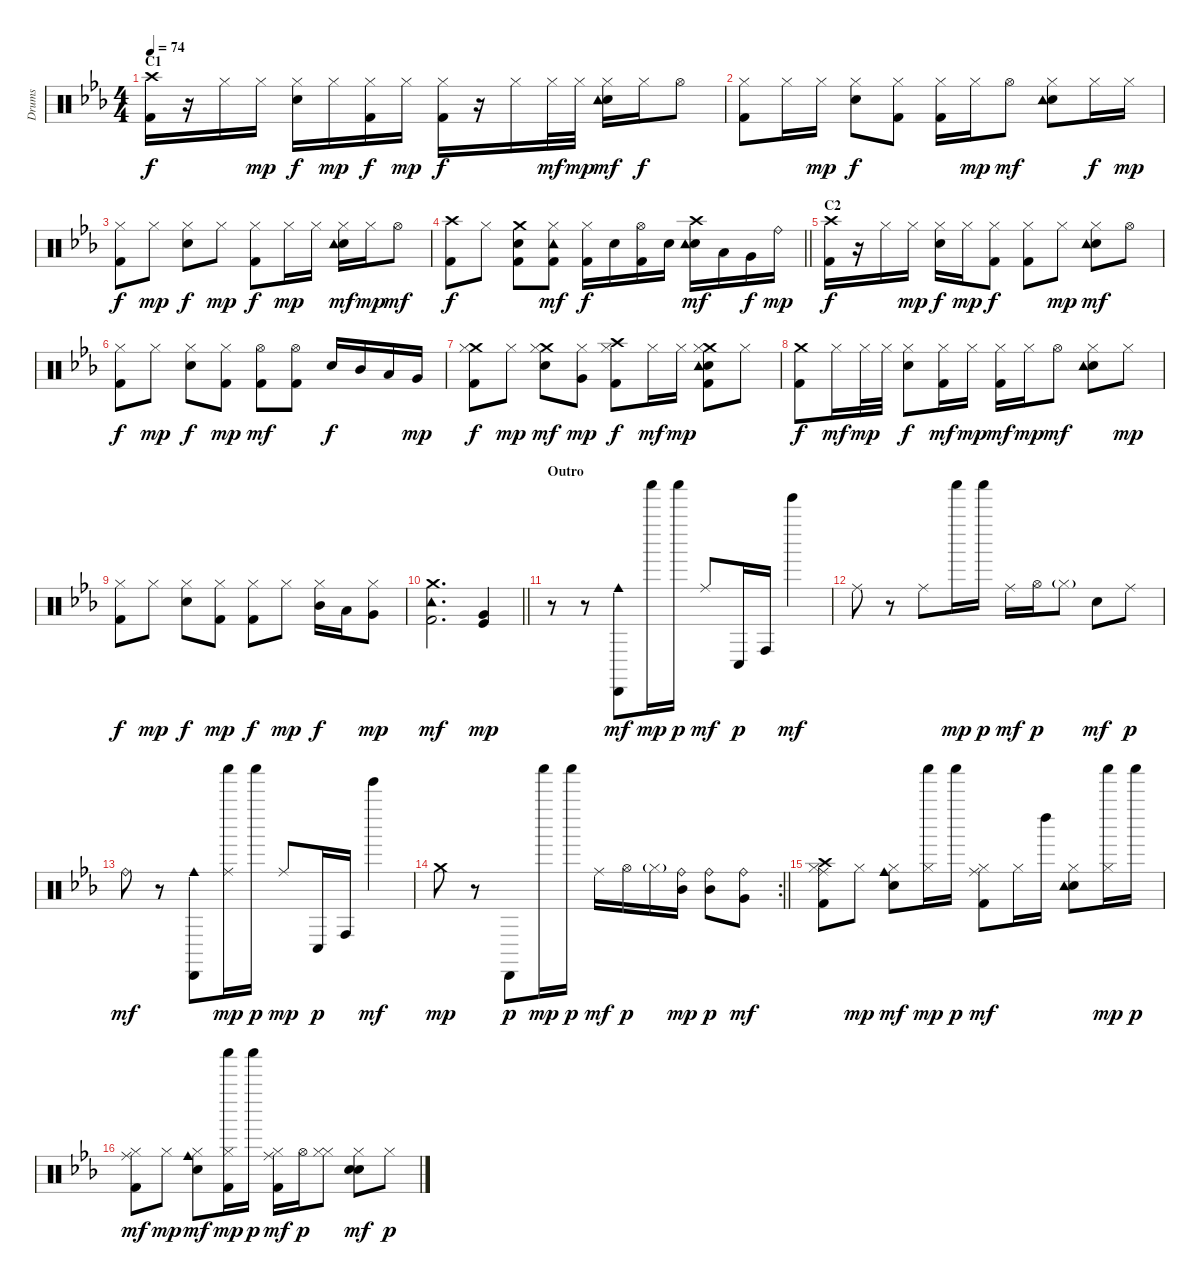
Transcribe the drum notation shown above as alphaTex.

\track ("Drums" "Drums") {instrument percussion}
\staff {score}
\articulation defaults
\ts (4 4)
\section ("" "C1")
\tempo 74
\clef neutral
\ks eb
("Crash high (hit)" "Kick (hit) 2").16{dy f} r.16 "Hi-Hat (closed)".16 "Hi-Hat (closed)".16{dy mp} ("Hi-Hat (closed)" "Electric Snare (hit)").16{dy f} "Hi-Hat (closed)".16{dy mp} ("Hi-Hat (closed)" "Kick (hit) 2").16{dy f} "Hi-Hat (closed)".16{dy mp} ("Hi-Hat (closed)" "Kick (hit) 2").16{dy f} r.16 "Hi-Hat (closed)".16 "Hi-Hat (closed)".32{dy mf} "Hi-Hat (closed)".32{dy mp} ("Hi-Hat (closed)" "Electric Snare (hit)" "Tambourine (hit)").16{dy mf} "Hi-Hat (closed)".16{dy f} "Hi-Hat (open)".8 |
("Hi-Hat (closed)" "Kick (hit) 2").8 "Hi-Hat (closed)".16 "Hi-Hat (closed)".16{dy mp} ("Hi-Hat (closed)" "Electric Snare (hit)").8{dy f} ("Hi-Hat (closed)" "Kick (hit) 2").8 ("Hi-Hat (closed)" "Kick (hit) 2").16 "Hi-Hat (closed)".16{dy mp} "Hi-Hat (open)".8{dy mf} ("Hi-Hat (closed)" "Electric Snare (hit)" "Tambourine (hit)").8 "Hi-Hat (closed)".16{dy f} "Hi-Hat (closed)".16{dy mp} |
("Hi-Hat (closed)" "Kick (hit) 2").8{dy f} "Hi-Hat (closed)".8{dy mp} ("Hi-Hat (closed)" "Electric Snare (hit)").8{dy f} "Hi-Hat (closed)".8{dy mp} ("Hi-Hat (closed)" "Kick (hit) 2").8{dy f} "Hi-Hat (closed)".16{dy mp} "Hi-Hat (closed)".16 ("Hi-Hat (closed)" "Electric Snare (hit)" "Tambourine (hit)").16{dy mf} "Hi-Hat (closed)".16{dy mp} "Hi-Hat (open)".8{dy mf} |
\barLineRight lightlight
("Crash high (hit)" "Kick (hit) 2").8{dy f} "Hi-Hat (closed)".8 ("Crash medium (hit)" "Electric Snare (hit)" "Kick (hit) 2").8 ("Hi-Hat (closed)" "Kick (hit) 2" "Tambourine (hit)").8{dy mf} ("Hi-Hat (closed)" "Kick (hit) 2").16{dy f} "Electric Snare (hit)".16 ("Hi-Hat (open)" "Kick (hit) 2").16 "Electric Snare (hit)".16 ("Crash high (hit)" "Electric Snare (hit)" "Tambourine (hit)").16{dy mf} "Low Tom (hit)".16 "Very Low Tom (hit)".16{dy f} "Ride (bell)".16{dy mp} |
\section ("" "C2")
("Crash high (hit)" "Kick (hit) 2").16{dy f} r.16 "Hi-Hat (closed)".16 "Hi-Hat (closed)".16{dy mp} ("Hi-Hat (closed)" "Electric Snare (hit)").16{dy f} "Hi-Hat (closed)".16{dy mp} ("Hi-Hat (closed)" "Kick (hit) 2").8{dy f} ("Hi-Hat (closed)" "Kick (hit) 2").8 "Hi-Hat (closed)".8{dy mp} ("Hi-Hat (closed)" "Electric Snare (hit)" "Tambourine (hit)").8{dy mf} "Hi-Hat (open)".8 |
("Hi-Hat (closed)" "Kick (hit) 2").8{dy f} "Hi-Hat (closed)".8{dy mp} ("Hi-Hat (closed)" "Electric Snare (hit)").8{dy f} ("Hi-Hat (closed)" "Kick (hit) 2").8{dy mp} ("Hi-Hat (open)" "Kick (hit) 2").8{dy mf} ("Hi-Hat (open)" "Kick (hit) 2").8 "Electric Snare (hit)".16{dy f} "Mid Tom (hit)".16 "Low Tom (hit)".16 "Very Low Tom (hit)".16{dy mp} |
("Crash medium (hit)" "Hi-Hat (closed)" "Kick (hit) 2").8{dy f} "Hi-Hat (closed)".8{dy mp} ("Crash medium (hit)" "Hi-Hat (closed)" "Electric Snare (hit)").8{dy mf} ("Hi-Hat (closed)" "Very Low Tom (hit)").8{dy mp} ("Crash high (hit)" "Hi-Hat (closed)" "Kick (hit) 2").8{dy f} "Hi-Hat (closed)".16{dy mf} "Hi-Hat (closed)".16{dy mp} ("Crash medium (hit)" "Hi-Hat (closed)" "Electric Snare (hit)" "Kick (hit) 2" "Tambourine (hit)").8 "Hi-Hat (closed)".8 |
("Crash medium (hit)" "Kick (hit) 2").8{dy f} "Hi-Hat (closed)".16{dy mf} "Hi-Hat (closed)".32{dy mp} "Hi-Hat (closed)".32 ("Hi-Hat (closed)" "Electric Snare (hit)").8{dy f} ("Hi-Hat (closed)" "Kick (hit) 2").16{dy mf} "Hi-Hat (closed)".16{dy mp} ("Hi-Hat (closed)" "Kick (hit) 2").16{dy mf} "Hi-Hat (closed)".16{dy mp} "Hi-Hat (open)".8{dy mf} ("Hi-Hat (closed)" "Electric Snare (hit)" "Tambourine (hit)").8 "Hi-Hat (closed)".8{dy mp} |
("Hi-Hat (closed)" "Kick (hit) 2").8{dy f} "Hi-Hat (closed)".8{dy mp} ("Hi-Hat (closed)" "Electric Snare (hit)").8{dy f} ("Hi-Hat (closed)" "Kick (hit) 2").8{dy mp} ("Hi-Hat (closed)" "Kick (hit) 2").8{dy f} "Hi-Hat (closed)".8{dy mp} ("Hi-Hat (closed)" "Mid Tom (hit)").16{dy f} "Low Tom (hit)".16 ("Hi-Hat (closed)" "Very Low Tom (hit)").8{dy mp} |
\barLineRight lightlight
("Crash medium (hit)" "Kick (hit) 2" "Tambourine (hit)").2{d dy mf} ("Very Low Tom (hit)" "Kick (hit)").4{dy mp} |
\section ("" "Outro")
r.8 r.8 ("Cabasa (hit)" "Cowbell medium (hit)").8{dy mf} "Shaker (hit)".16{dy mp} "Shaker (hit)".16{dy p} "Ride (middle)".8{dy mf} "Conga low (hit)".16{dy p} "Conga high (hit)".16 "Tinkle Bell (hit)".4{dy mf} |
"Ride (middle)".8 r.8 "Ride (middle)".8 "Shaker (hit)".16{dy mp} "Shaker (hit)".16{dy p} "Ride (middle)".16{dy mf} "Hi-Hat (open)".16{dy p} "Hi-Hat (closed)"{g}.8 "Hand Clap (hit)".8{dy mf} "Ride (middle)".8{dy p} |
"Ride (bell)".8{dy mf} r.8 ("Cabasa (hit)" "Cowbell medium (hit)").8 ("Shaker (hit)" "Ride (middle)").16{dy mp} "Shaker (hit)".16{dy p} "Ride (middle)".8{dy mp} "Conga low (hit)".16{dy p} "Conga high (hit)".16 "Tinkle Bell (hit)".4{dy mf} |
\rc 2
\barLineRight lightlight "Crash medium (hit)".8{dy mp}
r.8 "Cabasa (hit)".8{dy p} "Shaker (hit)".16{dy mp} "Shaker (hit)".16{dy p} "Ride (middle)".16{dy mf} "Hi-Hat (open)".16{dy p} "Hi-Hat (closed)"{g}.16 ("Ride (bell)" "Mid Tom (hit)").16{dy mp} ("Ride (bell)" "Mid Tom (hit)").8{dy p} ("Ride (bell)" "Very Low Tom (hit)").8{dy mf} |
("Crash high (hit)" "Hi-Hat (closed)" "Ride (middle)" "Kick (hit) 2").8 "Hi-Hat (closed)".8{dy mp} ("Hi-Hat (closed)" "Electric Snare (hit)" "Cowbell medium (hit)").8{dy mf} ("Shaker (hit)" "Hi-Hat (closed)").16{dy mp} "Shaker (hit)".16{dy p} ("Ride (middle)" "Hi-Hat (closed)" "Kick (hit) 2").8{dy mf} "Hi-Hat (closed)".16 "Left Maraca (hit)".16 ("Hi-Hat (closed)" "Electric Snare (hit)" "Tambourine (hit)").8 ("Shaker (hit)" "Hi-Hat (closed)").16{dy mp} "Shaker (hit)".16{dy p} |
("Ride (middle)" "Hi-Hat (closed)" "Kick (hit) 2").8{dy mf} "Hi-Hat (closed)".8{dy mp} ("Hi-Hat (closed)" "Electric Snare (hit)" "Cowbell medium (hit)").8{dy mf} ("Shaker (hit)" "Hi-Hat (closed)" "Kick (hit) 2").16{dy mp} "Shaker (hit)".16{dy p} ("Ride (middle)" "Hi-Hat (closed)" "Kick (hit) 2").16{dy mf} "Hi-Hat (open)".16{dy p} ("Hi-Hat (closed)" "Hi-Hat (closed)").8 ("Hi-Hat (closed)" "Electric Snare (hit)" "Hand Clap (hit)").8{dy mf} "Hi-Hat (closed)".8{dy p}
